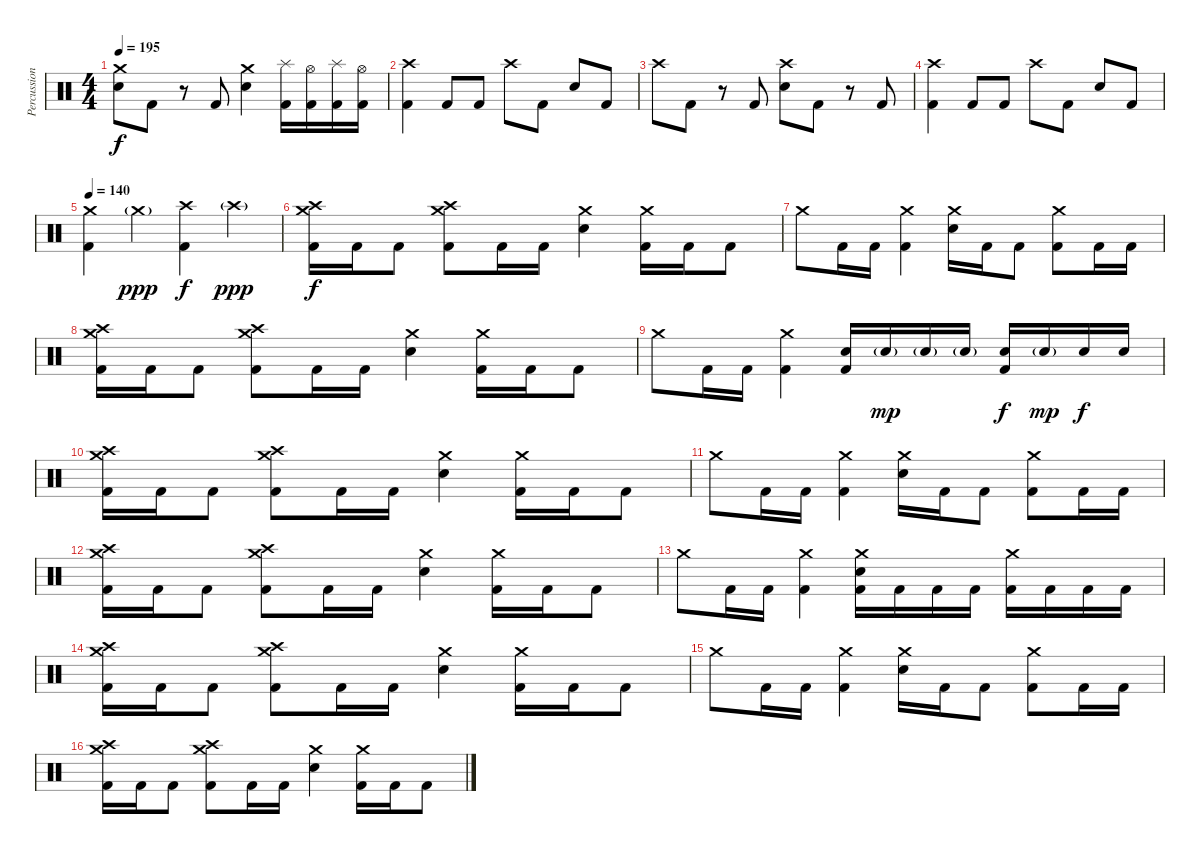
\track ("Percussion" "Percussion") {instrument percussion}
\staff {score}
\articulation defaults
\ts (4 4)
\tempo 195
\clef neutral
\ks c
("Crash medium (hit)" "Electric Snare (hit)").8{dy f} "Kick (hit) 2".8 r.8 "Kick (hit) 2".8 ("Crash medium (hit)" "Electric Snare (hit)").4 ("Splash (hit)" "Kick (hit) 2").16 ("Hi-Hat (open)" "Kick (hit) 2").16 ("Splash (hit)" "Kick (hit) 2").16 ("Hi-Hat (open)" "Kick (hit) 2").16 |
("Crash high (hit)" "Kick (hit) 2").4 "Kick (hit) 2".8 "Kick (hit) 2".8 "Crash high (hit)".8 "Kick (hit) 2".8 "Electric Snare (hit)".8 "Kick (hit) 2".8 |
"Crash high (hit)".8 "Kick (hit) 2".8 r.8 "Kick (hit) 2".8 ("Crash high (hit)" "Electric Snare (hit)").8 "Kick (hit) 2".8 r.8 "Kick (hit) 2".8 |
("Crash high (hit)" "Kick (hit) 2").4 "Kick (hit) 2".8 "Kick (hit) 2".8 "Crash high (hit)".8 "Kick (hit) 2".8 "Electric Snare (hit)".8 "Kick (hit) 2".8 |
\tempo 140
("Crash medium (hit)" "Kick (hit) 2").4 "Crash medium (hit)"{g}.4{dy ppp} ("Crash high (hit)" "Kick (hit) 2").4{dy f} "Crash high (hit)"{g}.4{dy ppp} |
("Crash medium (hit)" "Crash high (hit)" "Kick (hit) 2").16{dy f} "Kick (hit) 2".16 "Kick (hit) 2".8 ("Crash medium (hit)" "Crash high (hit)" "Kick (hit) 2").8 "Kick (hit) 2".16 "Kick (hit) 2".16 ("Crash medium (hit)" "Electric Snare (hit)").4 ("Crash medium (hit)" "Kick (hit) 2").16 "Kick (hit) 2".16 "Kick (hit) 2".8 |
"Crash medium (hit)".8 "Kick (hit) 2".16 "Kick (hit) 2".16 ("Crash medium (hit)" "Kick (hit) 2").4 ("Crash medium (hit)" "Electric Snare (hit)").16 "Kick (hit) 2".16 "Kick (hit) 2".8 ("Crash medium (hit)" "Kick (hit) 2").8 "Kick (hit) 2".16 "Kick (hit) 2".16 |
("Crash medium (hit)" "Crash high (hit)" "Kick (hit) 2").16 "Kick (hit) 2".16 "Kick (hit) 2".8 ("Crash medium (hit)" "Crash high (hit)" "Kick (hit) 2").8 "Kick (hit) 2".16 "Kick (hit) 2".16 ("Crash medium (hit)" "Electric Snare (hit)").4 ("Crash medium (hit)" "Kick (hit) 2").16 "Kick (hit) 2".16 "Kick (hit) 2".8 |
"Crash medium (hit)".8 "Kick (hit) 2".16 "Kick (hit) 2".16 ("Crash medium (hit)" "Kick (hit) 2").4 ("Electric Snare (hit)" "Kick (hit) 2").16 "Electric Snare (hit)"{g}.16{dy mp} "Electric Snare (hit)"{g}.16 "Electric Snare (hit)"{g}.16 ("Electric Snare (hit)" "Kick (hit) 2").16{dy f} "Electric Snare (hit)"{g}.16{dy mp} "Electric Snare (hit)".16{dy f} "Electric Snare (hit)".16 |
("Crash medium (hit)" "Crash high (hit)" "Kick (hit) 2").16 "Kick (hit) 2".16 "Kick (hit) 2".8 ("Crash medium (hit)" "Crash high (hit)" "Kick (hit) 2").8 "Kick (hit) 2".16 "Kick (hit) 2".16 ("Crash medium (hit)" "Electric Snare (hit)").4 ("Crash medium (hit)" "Kick (hit) 2").16 "Kick (hit) 2".16 "Kick (hit) 2".8 |
"Crash medium (hit)".8 "Kick (hit) 2".16 "Kick (hit) 2".16 ("Crash medium (hit)" "Kick (hit) 2").4 ("Crash medium (hit)" "Electric Snare (hit)").16 "Kick (hit) 2".16 "Kick (hit) 2".8 ("Crash medium (hit)" "Kick (hit) 2").8 "Kick (hit) 2".16 "Kick (hit) 2".16 |
("Crash medium (hit)" "Crash high (hit)" "Kick (hit) 2").16 "Kick (hit) 2".16 "Kick (hit) 2".8 ("Crash medium (hit)" "Crash high (hit)" "Kick (hit) 2").8 "Kick (hit) 2".16 "Kick (hit) 2".16 ("Crash medium (hit)" "Electric Snare (hit)").4 ("Crash medium (hit)" "Kick (hit) 2").16 "Kick (hit) 2".16 "Kick (hit) 2".8 |
"Crash medium (hit)".8 "Kick (hit) 2".16 "Kick (hit) 2".16 ("Crash medium (hit)" "Kick (hit) 2").4 ("Crash medium (hit)" "Electric Snare (hit)" "Kick (hit) 2").16 "Kick (hit) 2".16 "Kick (hit) 2".16 "Kick (hit) 2".16 ("Crash medium (hit)" "Kick (hit) 2").16 "Kick (hit) 2".16 "Kick (hit) 2".16 "Kick (hit) 2".16 |
("Crash medium (hit)" "Crash high (hit)" "Kick (hit) 2").16 "Kick (hit) 2".16 "Kick (hit) 2".8 ("Crash medium (hit)" "Crash high (hit)" "Kick (hit) 2").8 "Kick (hit) 2".16 "Kick (hit) 2".16 ("Crash medium (hit)" "Electric Snare (hit)").4 ("Crash medium (hit)" "Kick (hit) 2").16 "Kick (hit) 2".16 "Kick (hit) 2".8 |
"Crash medium (hit)".8 "Kick (hit) 2".16 "Kick (hit) 2".16 ("Crash medium (hit)" "Kick (hit) 2").4 ("Crash medium (hit)" "Electric Snare (hit)").16 "Kick (hit) 2".16 "Kick (hit) 2".8 ("Crash medium (hit)" "Kick (hit) 2").8 "Kick (hit) 2".16 "Kick (hit) 2".16 |
("Crash medium (hit)" "Crash high (hit)" "Kick (hit) 2").16 "Kick (hit) 2".16 "Kick (hit) 2".8 ("Crash medium (hit)" "Crash high (hit)" "Kick (hit) 2").8 "Kick (hit) 2".16 "Kick (hit) 2".16 ("Crash medium (hit)" "Electric Snare (hit)").4 ("Crash medium (hit)" "Kick (hit) 2").16 "Kick (hit) 2".16 "Kick (hit) 2".8
